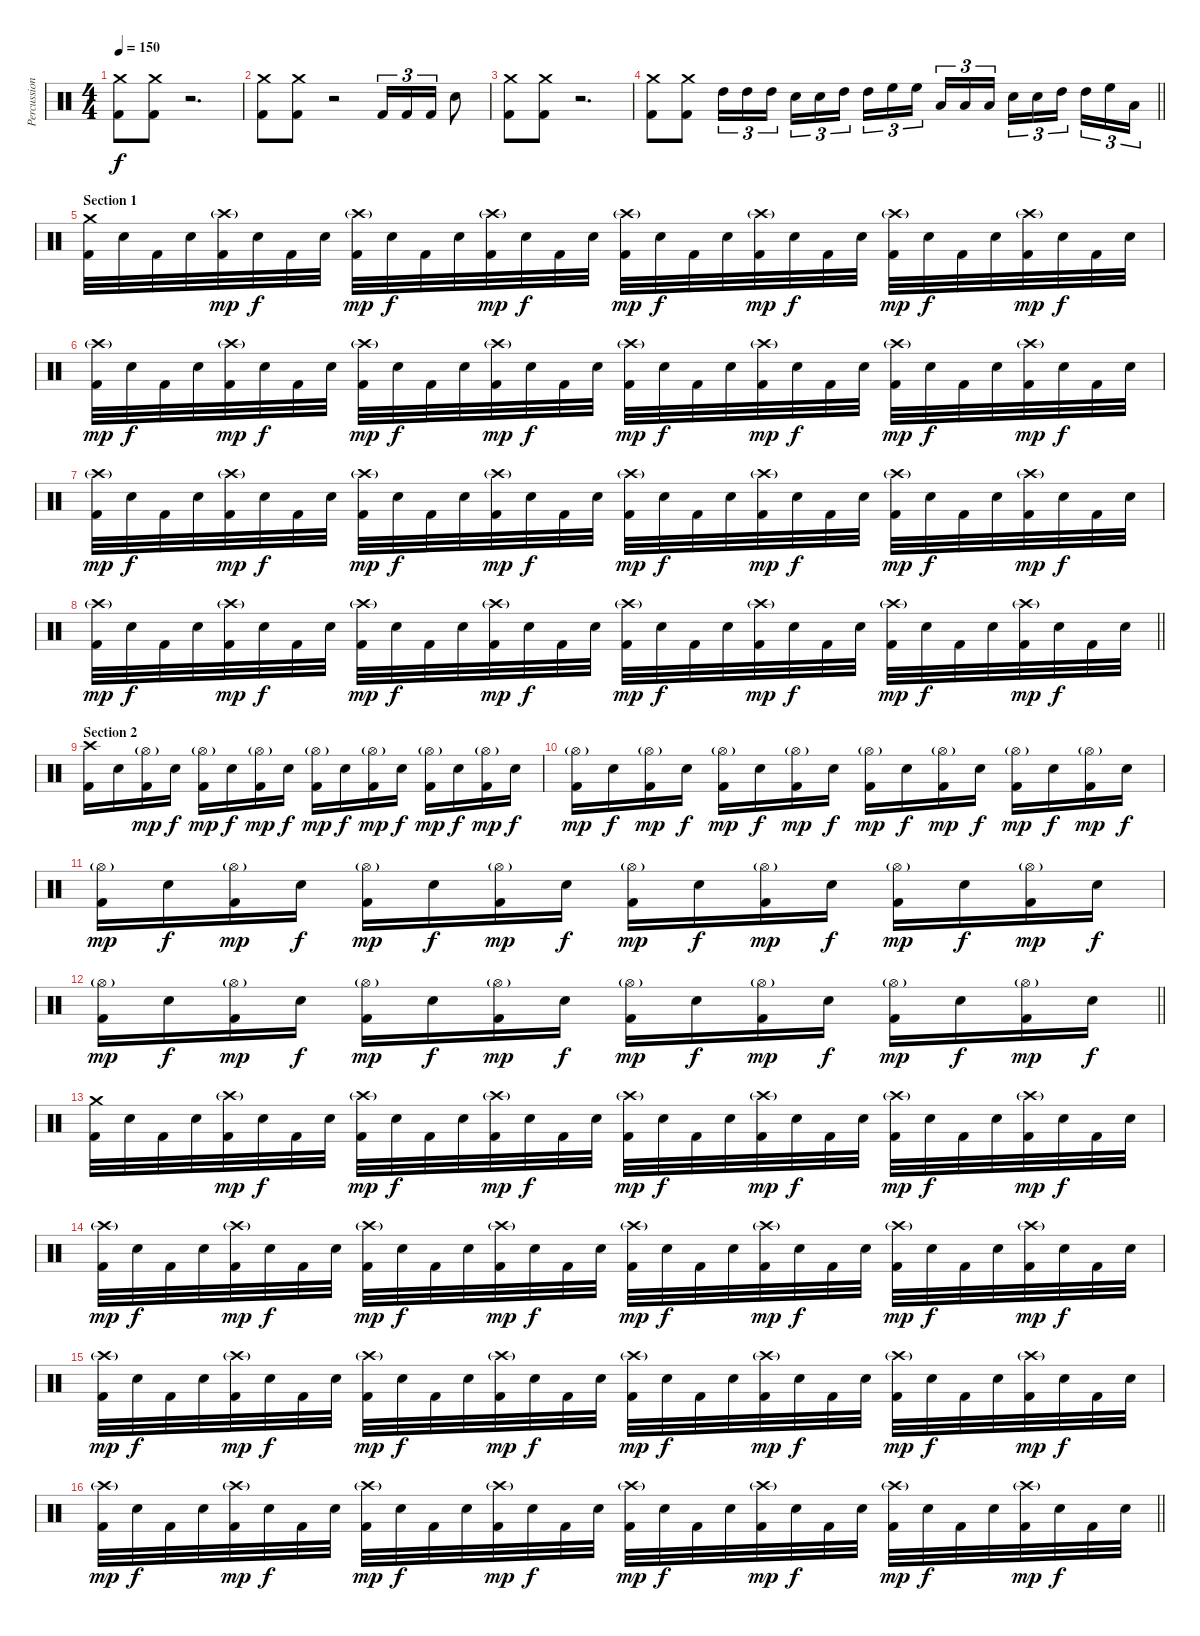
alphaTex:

\track ("Percussions" "Percussion") {instrument percussion}
\staff {score}
\articulation defaults
\ts (4 4)
\tempo 150
\clef neutral
\ks c
("Crash medium (hit)" "Kick (hit) 2").8{dy f} ("Crash medium (hit)" "Kick (hit) 2").8 r.2{d} |
("Crash medium (hit)" "Kick (hit) 2").8 ("Crash medium (hit)" "Kick (hit) 2").8 r.2 "Kick (hit) 2".16{tu (3 2)} "Kick (hit) 2".16{tu (3 2)} "Kick (hit) 2".16{tu (3 2)} "Electric Snare (hit)".8 |
("Crash medium (hit)" "Kick (hit) 2").8 ("Crash medium (hit)" "Kick (hit) 2").8 r.2{d} |
\barLineRight lightlight
("Crash medium (hit)" "Kick (hit) 2").8 ("Crash medium (hit)" "Kick (hit) 2").8 "High Tom (hit)".16{tu (3 2)} "High Tom (hit)".16{tu (3 2)} "High Tom (hit)".16{tu (3 2)} "Electric Snare (hit)".16{tu (3 2)} "Electric Snare (hit)".16{tu (3 2)} "High Tom (hit)".16{tu (3 2)} "High Tom (hit)".16{tu (3 2)} "High Floor Tom (hit)".16{tu (3 2)} "High Floor Tom (hit)".16{tu (3 2)} "Low Floor Tom (hit)".16{tu (3 2)} "Low Floor Tom (hit)".16{tu (3 2)} "Low Floor Tom (hit)".16{tu (3 2)} "Electric Snare (hit)".16{tu (3 2)} "Electric Snare (hit)".16{tu (3 2)} "High Tom (hit)".16{tu (3 2)} "High Tom (hit)".16{tu (3 2)} "High Floor Tom (hit)".16{tu (3 2)} "Low Floor Tom (hit)".16{tu (3 2)} |
\section ("" "Section 1")
("Crash medium (hit)" "Kick (hit) 2").32 "Electric Snare (hit)".32 "Kick (hit) 2".32 "Electric Snare (hit)".32 ("Crash high (hit)"{g} "Kick (hit) 2").32{dy mp} "Electric Snare (hit)".32{dy f} "Kick (hit) 2".32 "Electric Snare (hit)".32 ("Crash high (hit)"{g} "Kick (hit) 2").32{dy mp} "Electric Snare (hit)".32{dy f} "Kick (hit) 2".32 "Electric Snare (hit)".32 ("Crash high (hit)"{g} "Kick (hit) 2").32{dy mp} "Electric Snare (hit)".32{dy f} "Kick (hit) 2".32 "Electric Snare (hit)".32 ("Crash high (hit)"{g} "Kick (hit) 2").32{dy mp} "Electric Snare (hit)".32{dy f} "Kick (hit) 2".32 "Electric Snare (hit)".32 ("Crash high (hit)"{g} "Kick (hit) 2").32{dy mp} "Electric Snare (hit)".32{dy f} "Kick (hit) 2".32 "Electric Snare (hit)".32 ("Crash high (hit)"{g} "Kick (hit) 2").32{dy mp} "Electric Snare (hit)".32{dy f} "Kick (hit) 2".32 "Electric Snare (hit)".32 ("Crash high (hit)"{g} "Kick (hit) 2").32{dy mp} "Electric Snare (hit)".32{dy f} "Kick (hit) 2".32 "Electric Snare (hit)".32 |
("Crash high (hit)"{g} "Kick (hit) 2").32{dy mp} "Electric Snare (hit)".32{dy f} "Kick (hit) 2".32 "Electric Snare (hit)".32 ("Crash high (hit)"{g} "Kick (hit) 2").32{dy mp} "Electric Snare (hit)".32{dy f} "Kick (hit) 2".32 "Electric Snare (hit)".32 ("Crash high (hit)"{g} "Kick (hit) 2").32{dy mp} "Electric Snare (hit)".32{dy f} "Kick (hit) 2".32 "Electric Snare (hit)".32 ("Crash high (hit)"{g} "Kick (hit) 2").32{dy mp} "Electric Snare (hit)".32{dy f} "Kick (hit) 2".32 "Electric Snare (hit)".32 ("Crash high (hit)"{g} "Kick (hit) 2").32{dy mp} "Electric Snare (hit)".32{dy f} "Kick (hit) 2".32 "Electric Snare (hit)".32 ("Crash high (hit)"{g} "Kick (hit) 2").32{dy mp} "Electric Snare (hit)".32{dy f} "Kick (hit) 2".32 "Electric Snare (hit)".32 ("Crash high (hit)"{g} "Kick (hit) 2").32{dy mp} "Electric Snare (hit)".32{dy f} "Kick (hit) 2".32 "Electric Snare (hit)".32 ("Crash high (hit)"{g} "Kick (hit) 2").32{dy mp} "Electric Snare (hit)".32{dy f} "Kick (hit) 2".32 "Electric Snare (hit)".32 |
("Crash high (hit)"{g} "Kick (hit) 2").32{dy mp} "Electric Snare (hit)".32{dy f} "Kick (hit) 2".32 "Electric Snare (hit)".32 ("Crash high (hit)"{g} "Kick (hit) 2").32{dy mp} "Electric Snare (hit)".32{dy f} "Kick (hit) 2".32 "Electric Snare (hit)".32 ("Crash high (hit)"{g} "Kick (hit) 2").32{dy mp} "Electric Snare (hit)".32{dy f} "Kick (hit) 2".32 "Electric Snare (hit)".32 ("Crash high (hit)"{g} "Kick (hit) 2").32{dy mp} "Electric Snare (hit)".32{dy f} "Kick (hit) 2".32 "Electric Snare (hit)".32 ("Crash high (hit)"{g} "Kick (hit) 2").32{dy mp} "Electric Snare (hit)".32{dy f} "Kick (hit) 2".32 "Electric Snare (hit)".32 ("Crash high (hit)"{g} "Kick (hit) 2").32{dy mp} "Electric Snare (hit)".32{dy f} "Kick (hit) 2".32 "Electric Snare (hit)".32 ("Crash high (hit)"{g} "Kick (hit) 2").32{dy mp} "Electric Snare (hit)".32{dy f} "Kick (hit) 2".32 "Electric Snare (hit)".32 ("Crash high (hit)"{g} "Kick (hit) 2").32{dy mp} "Electric Snare (hit)".32{dy f} "Kick (hit) 2".32 "Electric Snare (hit)".32 |
\barLineRight lightlight
("Crash high (hit)"{g} "Kick (hit) 2").32{dy mp} "Electric Snare (hit)".32{dy f} "Kick (hit) 2".32 "Electric Snare (hit)".32 ("Crash high (hit)"{g} "Kick (hit) 2").32{dy mp} "Electric Snare (hit)".32{dy f} "Kick (hit) 2".32 "Electric Snare (hit)".32 ("Crash high (hit)"{g} "Kick (hit) 2").32{dy mp} "Electric Snare (hit)".32{dy f} "Kick (hit) 2".32 "Electric Snare (hit)".32 ("Crash high (hit)"{g} "Kick (hit) 2").32{dy mp} "Electric Snare (hit)".32{dy f} "Kick (hit) 2".32 "Electric Snare (hit)".32 ("Crash high (hit)"{g} "Kick (hit) 2").32{dy mp} "Electric Snare (hit)".32{dy f} "Kick (hit) 2".32 "Electric Snare (hit)".32 ("Crash high (hit)"{g} "Kick (hit) 2").32{dy mp} "Electric Snare (hit)".32{dy f} "Kick (hit) 2".32 "Electric Snare (hit)".32 ("Crash high (hit)"{g} "Kick (hit) 2").32{dy mp} "Electric Snare (hit)".32{dy f} "Kick (hit) 2".32 "Electric Snare (hit)".32 ("Crash high (hit)"{g} "Kick (hit) 2").32{dy mp} "Electric Snare (hit)".32{dy f} "Kick (hit) 2".32 "Electric Snare (hit)".32 |
\section ("" "Section 2")
("Crash high (hit)" "Kick (hit) 2").16 "Electric Snare (hit)".16 ("Hi-Hat (open)"{g} "Kick (hit) 2").16{dy mp} "Electric Snare (hit)".16{dy f} ("Hi-Hat (open)"{g} "Kick (hit) 2").16{dy mp} "Electric Snare (hit)".16{dy f} ("Hi-Hat (open)"{g} "Kick (hit) 2").16{dy mp} "Electric Snare (hit)".16{dy f} ("Hi-Hat (open)"{g} "Kick (hit) 2").16{dy mp} "Electric Snare (hit)".16{dy f} ("Hi-Hat (open)"{g} "Kick (hit) 2").16{dy mp} "Electric Snare (hit)".16{dy f} ("Hi-Hat (open)"{g} "Kick (hit) 2").16{dy mp} "Electric Snare (hit)".16{dy f} ("Hi-Hat (open)"{g} "Kick (hit) 2").16{dy mp} "Electric Snare (hit)".16{dy f} |
("Hi-Hat (open)"{g} "Kick (hit) 2").16{dy mp} "Electric Snare (hit)".16{dy f} ("Hi-Hat (open)"{g} "Kick (hit) 2").16{dy mp} "Electric Snare (hit)".16{dy f} ("Hi-Hat (open)"{g} "Kick (hit) 2").16{dy mp} "Electric Snare (hit)".16{dy f} ("Hi-Hat (open)"{g} "Kick (hit) 2").16{dy mp} "Electric Snare (hit)".16{dy f} ("Hi-Hat (open)"{g} "Kick (hit) 2").16{dy mp} "Electric Snare (hit)".16{dy f} ("Hi-Hat (open)"{g} "Kick (hit) 2").16{dy mp} "Electric Snare (hit)".16{dy f} ("Hi-Hat (open)"{g} "Kick (hit) 2").16{dy mp} "Electric Snare (hit)".16{dy f} ("Hi-Hat (open)"{g} "Kick (hit) 2").16{dy mp} "Electric Snare (hit)".16{dy f} |
("Hi-Hat (open)"{g} "Kick (hit) 2").16{dy mp} "Electric Snare (hit)".16{dy f} ("Hi-Hat (open)"{g} "Kick (hit) 2").16{dy mp} "Electric Snare (hit)".16{dy f} ("Hi-Hat (open)"{g} "Kick (hit) 2").16{dy mp} "Electric Snare (hit)".16{dy f} ("Hi-Hat (open)"{g} "Kick (hit) 2").16{dy mp} "Electric Snare (hit)".16{dy f} ("Hi-Hat (open)"{g} "Kick (hit) 2").16{dy mp} "Electric Snare (hit)".16{dy f} ("Hi-Hat (open)"{g} "Kick (hit) 2").16{dy mp} "Electric Snare (hit)".16{dy f} ("Hi-Hat (open)"{g} "Kick (hit) 2").16{dy mp} "Electric Snare (hit)".16{dy f} ("Hi-Hat (open)"{g} "Kick (hit) 2").16{dy mp} "Electric Snare (hit)".16{dy f} |
\barLineRight lightlight
("Hi-Hat (open)"{g} "Kick (hit) 2").16{dy mp} "Electric Snare (hit)".16{dy f} ("Hi-Hat (open)"{g} "Kick (hit) 2").16{dy mp} "Electric Snare (hit)".16{dy f} ("Hi-Hat (open)"{g} "Kick (hit) 2").16{dy mp} "Electric Snare (hit)".16{dy f} ("Hi-Hat (open)"{g} "Kick (hit) 2").16{dy mp} "Electric Snare (hit)".16{dy f} ("Hi-Hat (open)"{g} "Kick (hit) 2").16{dy mp} "Electric Snare (hit)".16{dy f} ("Hi-Hat (open)"{g} "Kick (hit) 2").16{dy mp} "Electric Snare (hit)".16{dy f} ("Hi-Hat (open)"{g} "Kick (hit) 2").16{dy mp} "Electric Snare (hit)".16{dy f} ("Hi-Hat (open)"{g} "Kick (hit) 2").16{dy mp} "Electric Snare (hit)".16{dy f} |
("Crash medium (hit)" "Kick (hit) 2").32 "Electric Snare (hit)".32 "Kick (hit) 2".32 "Electric Snare (hit)".32 ("Crash high (hit)"{g} "Kick (hit) 2").32{dy mp} "Electric Snare (hit)".32{dy f} "Kick (hit) 2".32 "Electric Snare (hit)".32 ("Crash high (hit)"{g} "Kick (hit) 2").32{dy mp} "Electric Snare (hit)".32{dy f} "Kick (hit) 2".32 "Electric Snare (hit)".32 ("Crash high (hit)"{g} "Kick (hit) 2").32{dy mp} "Electric Snare (hit)".32{dy f} "Kick (hit) 2".32 "Electric Snare (hit)".32 ("Crash high (hit)"{g} "Kick (hit) 2").32{dy mp} "Electric Snare (hit)".32{dy f} "Kick (hit) 2".32 "Electric Snare (hit)".32 ("Crash high (hit)"{g} "Kick (hit) 2").32{dy mp} "Electric Snare (hit)".32{dy f} "Kick (hit) 2".32 "Electric Snare (hit)".32 ("Crash high (hit)"{g} "Kick (hit) 2").32{dy mp} "Electric Snare (hit)".32{dy f} "Kick (hit) 2".32 "Electric Snare (hit)".32 ("Crash high (hit)"{g} "Kick (hit) 2").32{dy mp} "Electric Snare (hit)".32{dy f} "Kick (hit) 2".32 "Electric Snare (hit)".32 |
("Crash high (hit)"{g} "Kick (hit) 2").32{dy mp} "Electric Snare (hit)".32{dy f} "Kick (hit) 2".32 "Electric Snare (hit)".32 ("Crash high (hit)"{g} "Kick (hit) 2").32{dy mp} "Electric Snare (hit)".32{dy f} "Kick (hit) 2".32 "Electric Snare (hit)".32 ("Crash high (hit)"{g} "Kick (hit) 2").32{dy mp} "Electric Snare (hit)".32{dy f} "Kick (hit) 2".32 "Electric Snare (hit)".32 ("Crash high (hit)"{g} "Kick (hit) 2").32{dy mp} "Electric Snare (hit)".32{dy f} "Kick (hit) 2".32 "Electric Snare (hit)".32 ("Crash high (hit)"{g} "Kick (hit) 2").32{dy mp} "Electric Snare (hit)".32{dy f} "Kick (hit) 2".32 "Electric Snare (hit)".32 ("Crash high (hit)"{g} "Kick (hit) 2").32{dy mp} "Electric Snare (hit)".32{dy f} "Kick (hit) 2".32 "Electric Snare (hit)".32 ("Crash high (hit)"{g} "Kick (hit) 2").32{dy mp} "Electric Snare (hit)".32{dy f} "Kick (hit) 2".32 "Electric Snare (hit)".32 ("Crash high (hit)"{g} "Kick (hit) 2").32{dy mp} "Electric Snare (hit)".32{dy f} "Kick (hit) 2".32 "Electric Snare (hit)".32 |
("Crash high (hit)"{g} "Kick (hit) 2").32{dy mp} "Electric Snare (hit)".32{dy f} "Kick (hit) 2".32 "Electric Snare (hit)".32 ("Crash high (hit)"{g} "Kick (hit) 2").32{dy mp} "Electric Snare (hit)".32{dy f} "Kick (hit) 2".32 "Electric Snare (hit)".32 ("Crash high (hit)"{g} "Kick (hit) 2").32{dy mp} "Electric Snare (hit)".32{dy f} "Kick (hit) 2".32 "Electric Snare (hit)".32 ("Crash high (hit)"{g} "Kick (hit) 2").32{dy mp} "Electric Snare (hit)".32{dy f} "Kick (hit) 2".32 "Electric Snare (hit)".32 ("Crash high (hit)"{g} "Kick (hit) 2").32{dy mp} "Electric Snare (hit)".32{dy f} "Kick (hit) 2".32 "Electric Snare (hit)".32 ("Crash high (hit)"{g} "Kick (hit) 2").32{dy mp} "Electric Snare (hit)".32{dy f} "Kick (hit) 2".32 "Electric Snare (hit)".32 ("Crash high (hit)"{g} "Kick (hit) 2").32{dy mp} "Electric Snare (hit)".32{dy f} "Kick (hit) 2".32 "Electric Snare (hit)".32 ("Crash high (hit)"{g} "Kick (hit) 2").32{dy mp} "Electric Snare (hit)".32{dy f} "Kick (hit) 2".32 "Electric Snare (hit)".32 |
\barLineRight lightlight
("Crash high (hit)"{g} "Kick (hit) 2").32{dy mp} "Electric Snare (hit)".32{dy f} "Kick (hit) 2".32 "Electric Snare (hit)".32 ("Crash high (hit)"{g} "Kick (hit) 2").32{dy mp} "Electric Snare (hit)".32{dy f} "Kick (hit) 2".32 "Electric Snare (hit)".32 ("Crash high (hit)"{g} "Kick (hit) 2").32{dy mp} "Electric Snare (hit)".32{dy f} "Kick (hit) 2".32 "Electric Snare (hit)".32 ("Crash high (hit)"{g} "Kick (hit) 2").32{dy mp} "Electric Snare (hit)".32{dy f} "Kick (hit) 2".32 "Electric Snare (hit)".32 ("Crash high (hit)"{g} "Kick (hit) 2").32{dy mp} "Electric Snare (hit)".32{dy f} "Kick (hit) 2".32 "Electric Snare (hit)".32 ("Crash high (hit)"{g} "Kick (hit) 2").32{dy mp} "Electric Snare (hit)".32{dy f} "Kick (hit) 2".32 "Electric Snare (hit)".32 ("Crash high (hit)"{g} "Kick (hit) 2").32{dy mp} "Electric Snare (hit)".32{dy f} "Kick (hit) 2".32 "Electric Snare (hit)".32 ("Crash high (hit)"{g} "Kick (hit) 2").32{dy mp} "Electric Snare (hit)".32{dy f} "Kick (hit) 2".32 "Electric Snare (hit)".32
